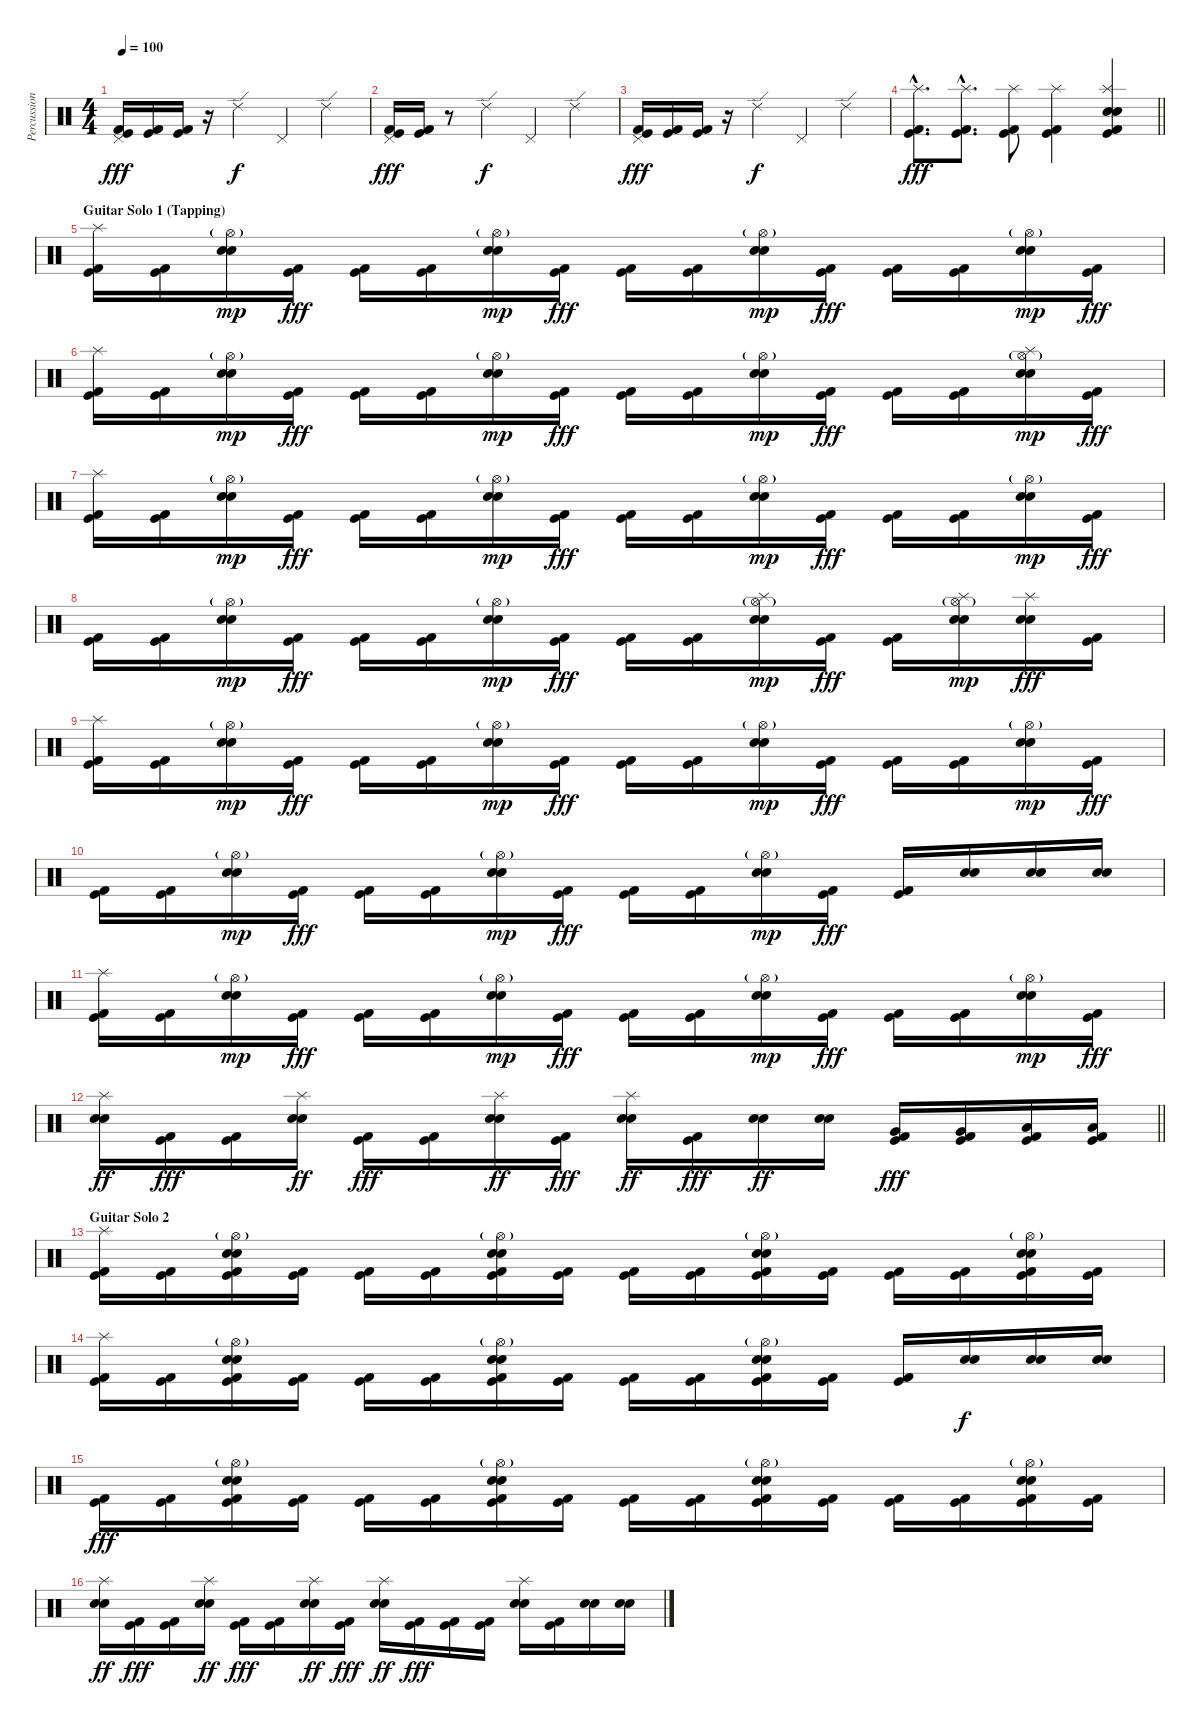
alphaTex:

\track ("Percussion" "Percussion") {instrument percussion}
\staff {score}
\articulation defaults
\ts (4 4)
\tempo 100
\clef neutral
\ks c
("Pedal Hi-Hat (hit)" "Kick (hit)" "Kick (hit) 2").16{dy fff} ("Kick (hit)" "Kick (hit) 2").16 ("Kick (hit)" "Kick (hit) 2").16 r.16 "Ride (edge) 2".4{dy f} "Pedal Hi-Hat (hit)".4 "Ride (edge) 2".4 |
("Pedal Hi-Hat (hit)" "Kick (hit)" "Kick (hit) 2").16{dy fff} ("Kick (hit)" "Kick (hit) 2").16 r.8 "Ride (edge) 2".4{dy f} "Pedal Hi-Hat (hit)".4 "Ride (edge) 2".4 |
("Pedal Hi-Hat (hit)" "Kick (hit)" "Kick (hit) 2").16{dy fff} ("Kick (hit)" "Kick (hit) 2").16 ("Kick (hit)" "Kick (hit) 2").16 r.16 "Ride (edge) 2".4{dy f} "Pedal Hi-Hat (hit)".4 "Ride (edge) 2".4 |
\barLineRight lightlight
("Splash (hit)"{hac} "Kick (hit)"{hac} "Kick (hit) 2"{hac}).8{d dy fff} ("Splash (hit)"{hac} "Kick (hit)"{hac} "Kick (hit) 2"{hac}).8{d} ("Splash (hit)" "Kick (hit)" "Kick (hit) 2").8 ("Splash (hit)" "Kick (hit)" "Kick (hit) 2").4 ("Splash (hit)" "Electric Snare (hit)" "Snare (hit) 2" "Kick (hit)" "Kick (hit) 2").4 |
\section ("" "Guitar Solo 1 (Tapping)")
("Splash (hit)" "Kick (hit)" "Kick (hit) 2").16 ("Kick (hit)" "Kick (hit) 2").16 ("Electric Snare (hit)" "Snare (hit) 2" "Hi-Hat (open)"{g}).16{dy mp} ("Kick (hit)" "Kick (hit) 2").16{dy fff} ("Kick (hit)" "Kick (hit) 2").16 ("Kick (hit)" "Kick (hit) 2").16 ("Electric Snare (hit)" "Snare (hit) 2" "Hi-Hat (open)"{g}).16{dy mp} ("Kick (hit)" "Kick (hit) 2").16{dy fff} ("Kick (hit)" "Kick (hit) 2").16 ("Kick (hit)" "Kick (hit) 2").16 ("Electric Snare (hit)" "Snare (hit) 2" "Hi-Hat (open)"{g}).16{dy mp} ("Kick (hit)" "Kick (hit) 2").16{dy fff} ("Kick (hit)" "Kick (hit) 2").16 ("Kick (hit)" "Kick (hit) 2").16 ("Electric Snare (hit)" "Snare (hit) 2" "Hi-Hat (open)"{g}).16{dy mp} ("Kick (hit)" "Kick (hit) 2").16{dy fff} |
("Splash (hit)" "Kick (hit)" "Kick (hit) 2").16 ("Kick (hit)" "Kick (hit) 2").16 ("Electric Snare (hit)" "Snare (hit) 2" "Hi-Hat (open)"{g}).16{dy mp} ("Kick (hit)" "Kick (hit) 2").16{dy fff} ("Kick (hit)" "Kick (hit) 2").16 ("Kick (hit)" "Kick (hit) 2").16 ("Electric Snare (hit)" "Snare (hit) 2" "Hi-Hat (open)"{g}).16{dy mp} ("Kick (hit)" "Kick (hit) 2").16{dy fff} ("Kick (hit)" "Kick (hit) 2").16 ("Kick (hit)" "Kick (hit) 2").16 ("Electric Snare (hit)" "Snare (hit) 2" "Hi-Hat (open)"{g}).16{dy mp} ("Kick (hit)" "Kick (hit) 2").16{dy fff} ("Kick (hit)" "Kick (hit) 2").16 ("Kick (hit)" "Kick (hit) 2").16 ("Splash (hit)" "Electric Snare (hit)" "Snare (hit) 2" "Hi-Hat (open)"{g}).16{dy mp} ("Kick (hit)" "Kick (hit) 2").16{dy fff} |
("Splash (hit)" "Kick (hit)" "Kick (hit) 2").16 ("Kick (hit)" "Kick (hit) 2").16 ("Electric Snare (hit)" "Snare (hit) 2" "Hi-Hat (open)"{g}).16{dy mp} ("Kick (hit)" "Kick (hit) 2").16{dy fff} ("Kick (hit)" "Kick (hit) 2").16 ("Kick (hit)" "Kick (hit) 2").16 ("Electric Snare (hit)" "Snare (hit) 2" "Hi-Hat (open)"{g}).16{dy mp} ("Kick (hit)" "Kick (hit) 2").16{dy fff} ("Kick (hit)" "Kick (hit) 2").16 ("Kick (hit)" "Kick (hit) 2").16 ("Electric Snare (hit)" "Snare (hit) 2" "Hi-Hat (open)"{g}).16{dy mp} ("Kick (hit)" "Kick (hit) 2").16{dy fff} ("Kick (hit)" "Kick (hit) 2").16 ("Kick (hit)" "Kick (hit) 2").16 ("Electric Snare (hit)" "Snare (hit) 2" "Hi-Hat (open)"{g}).16{dy mp} ("Kick (hit)" "Kick (hit) 2").16{dy fff} |
("Kick (hit)" "Kick (hit) 2").16 ("Kick (hit)" "Kick (hit) 2").16 ("Electric Snare (hit)" "Snare (hit) 2" "Hi-Hat (open)"{g}).16{dy mp} ("Kick (hit)" "Kick (hit) 2").16{dy fff} ("Kick (hit)" "Kick (hit) 2").16 ("Kick (hit)" "Kick (hit) 2").16 ("Electric Snare (hit)" "Snare (hit) 2" "Hi-Hat (open)"{g}).16{dy mp} ("Kick (hit)" "Kick (hit) 2").16{dy fff} ("Kick (hit)" "Kick (hit) 2").16 ("Kick (hit)" "Kick (hit) 2").16 ("Splash (hit)" "Electric Snare (hit)" "Snare (hit) 2" "Hi-Hat (open)"{g}).16{dy mp} ("Kick (hit)" "Kick (hit) 2").16{dy fff} ("Kick (hit)" "Kick (hit) 2").16 ("Splash (hit)" "Electric Snare (hit)" "Snare (hit) 2" "Hi-Hat (open)"{g}).16{dy mp} ("Splash (hit)" "Electric Snare (hit)" "Snare (hit) 2").16{dy fff} ("Kick (hit)" "Kick (hit) 2").16 |
("Splash (hit)" "Kick (hit)" "Kick (hit) 2").16 ("Kick (hit)" "Kick (hit) 2").16 ("Electric Snare (hit)" "Snare (hit) 2" "Hi-Hat (open)"{g}).16{dy mp} ("Kick (hit)" "Kick (hit) 2").16{dy fff} ("Kick (hit)" "Kick (hit) 2").16 ("Kick (hit)" "Kick (hit) 2").16 ("Electric Snare (hit)" "Snare (hit) 2" "Hi-Hat (open)"{g}).16{dy mp} ("Kick (hit)" "Kick (hit) 2").16{dy fff} ("Kick (hit)" "Kick (hit) 2").16 ("Kick (hit)" "Kick (hit) 2").16 ("Electric Snare (hit)" "Snare (hit) 2" "Hi-Hat (open)"{g}).16{dy mp} ("Kick (hit)" "Kick (hit) 2").16{dy fff} ("Kick (hit)" "Kick (hit) 2").16 ("Kick (hit)" "Kick (hit) 2").16 ("Electric Snare (hit)" "Snare (hit) 2" "Hi-Hat (open)"{g}).16{dy mp} ("Kick (hit)" "Kick (hit) 2").16{dy fff} |
("Kick (hit)" "Kick (hit) 2").16 ("Kick (hit)" "Kick (hit) 2").16 ("Electric Snare (hit)" "Snare (hit) 2" "Hi-Hat (open)"{g}).16{dy mp} ("Kick (hit)" "Kick (hit) 2").16{dy fff} ("Kick (hit)" "Kick (hit) 2").16 ("Kick (hit)" "Kick (hit) 2").16 ("Electric Snare (hit)" "Snare (hit) 2" "Hi-Hat (open)"{g}).16{dy mp} ("Kick (hit)" "Kick (hit) 2").16{dy fff} ("Kick (hit)" "Kick (hit) 2").16 ("Kick (hit)" "Kick (hit) 2").16 ("Electric Snare (hit)" "Snare (hit) 2" "Hi-Hat (open)"{g}).16{dy mp} ("Kick (hit)" "Kick (hit) 2").16{dy fff} ("Kick (hit)" "Kick (hit) 2").16 ("Electric Snare (hit)" "Snare (hit) 2").16 ("Electric Snare (hit)" "Snare (hit) 2").16 ("Electric Snare (hit)" "Snare (hit) 2").16 |
("Splash (hit)" "Kick (hit)" "Kick (hit) 2").16 ("Kick (hit)" "Kick (hit) 2").16 ("Electric Snare (hit)" "Snare (hit) 2" "Hi-Hat (open)"{g}).16{dy mp} ("Kick (hit)" "Kick (hit) 2").16{dy fff} ("Kick (hit)" "Kick (hit) 2").16 ("Kick (hit)" "Kick (hit) 2").16 ("Electric Snare (hit)" "Snare (hit) 2" "Hi-Hat (open)"{g}).16{dy mp} ("Kick (hit)" "Kick (hit) 2").16{dy fff} ("Kick (hit)" "Kick (hit) 2").16 ("Kick (hit)" "Kick (hit) 2").16 ("Electric Snare (hit)" "Snare (hit) 2" "Hi-Hat (open)"{g}).16{dy mp} ("Kick (hit)" "Kick (hit) 2").16{dy fff} ("Kick (hit)" "Kick (hit) 2").16 ("Kick (hit)" "Kick (hit) 2").16 ("Electric Snare (hit)" "Snare (hit) 2" "Hi-Hat (open)"{g}).16{dy mp} ("Kick (hit)" "Kick (hit) 2").16{dy fff} |
\barLineRight lightlight
("Splash (hit)" "Electric Snare (hit)" "Snare (hit) 2").16{dy ff} ("Kick (hit)" "Kick (hit) 2").16{dy fff} ("Kick (hit)" "Kick (hit) 2").16 ("Splash (hit)" "Electric Snare (hit)" "Snare (hit) 2").16{dy ff} ("Kick (hit)" "Kick (hit) 2").16{dy fff} ("Kick (hit)" "Kick (hit) 2").16 ("Splash (hit)" "Electric Snare (hit)" "Snare (hit) 2").16{dy ff} ("Kick (hit)" "Kick (hit) 2").16{dy fff} ("Splash (hit)" "Electric Snare (hit)" "Snare (hit) 2").16{dy ff} ("Kick (hit)" "Kick (hit) 2").16{dy fff} ("Electric Snare (hit)" "Snare (hit) 2").16{dy ff} ("Electric Snare (hit)" "Snare (hit) 2").16 ("Very Low Tom (hit)" "Kick (hit)" "Kick (hit) 2").16{dy fff} ("Very Low Tom (hit)" "Kick (hit)" "Kick (hit) 2").16 ("Low Floor Tom (hit)" "Kick (hit)" "Kick (hit) 2").16 ("Low Floor Tom (hit)" "Kick (hit)" "Kick (hit) 2").16 |
\section ("" "Guitar Solo 2")
("Splash (hit)" "Kick (hit)" "Kick (hit) 2").16 ("Kick (hit)" "Kick (hit) 2").16 ("Electric Snare (hit)" "Snare (hit) 2" "Hi-Hat (open)"{g} "Kick (hit)" "Kick (hit) 2").16 ("Kick (hit)" "Kick (hit) 2").16 ("Kick (hit)" "Kick (hit) 2").16 ("Kick (hit)" "Kick (hit) 2").16 ("Electric Snare (hit)" "Snare (hit) 2" "Hi-Hat (open)"{g} "Kick (hit)" "Kick (hit) 2").16 ("Kick (hit)" "Kick (hit) 2").16 ("Kick (hit)" "Kick (hit) 2").16 ("Kick (hit)" "Kick (hit) 2").16 ("Electric Snare (hit)" "Snare (hit) 2" "Hi-Hat (open)"{g} "Kick (hit)" "Kick (hit) 2").16 ("Kick (hit)" "Kick (hit) 2").16 ("Kick (hit)" "Kick (hit) 2").16 ("Kick (hit)" "Kick (hit) 2").16 ("Electric Snare (hit)" "Snare (hit) 2" "Hi-Hat (open)"{g} "Kick (hit)" "Kick (hit) 2").16 ("Kick (hit)" "Kick (hit) 2").16 |
("Splash (hit)" "Kick (hit)" "Kick (hit) 2").16 ("Kick (hit)" "Kick (hit) 2").16 ("Electric Snare (hit)" "Snare (hit) 2" "Hi-Hat (open)"{g} "Kick (hit)" "Kick (hit) 2").16 ("Kick (hit)" "Kick (hit) 2").16 ("Kick (hit)" "Kick (hit) 2").16 ("Kick (hit)" "Kick (hit) 2").16 ("Electric Snare (hit)" "Snare (hit) 2" "Hi-Hat (open)"{g} "Kick (hit)" "Kick (hit) 2").16 ("Kick (hit)" "Kick (hit) 2").16 ("Kick (hit)" "Kick (hit) 2").16 ("Kick (hit)" "Kick (hit) 2").16 ("Electric Snare (hit)" "Snare (hit) 2" "Hi-Hat (open)"{g} "Kick (hit)" "Kick (hit) 2").16 ("Kick (hit)" "Kick (hit) 2").16 ("Kick (hit)" "Kick (hit) 2").16 ("Electric Snare (hit)" "Snare (hit) 2").16{dy f} ("Electric Snare (hit)" "Snare (hit) 2").16 ("Electric Snare (hit)" "Snare (hit) 2").16 |
("Kick (hit)" "Kick (hit) 2").16{dy fff} ("Kick (hit)" "Kick (hit) 2").16 ("Electric Snare (hit)" "Snare (hit) 2" "Hi-Hat (open)"{g} "Kick (hit)" "Kick (hit) 2").16 ("Kick (hit)" "Kick (hit) 2").16 ("Kick (hit)" "Kick (hit) 2").16 ("Kick (hit)" "Kick (hit) 2").16 ("Electric Snare (hit)" "Snare (hit) 2" "Hi-Hat (open)"{g} "Kick (hit)" "Kick (hit) 2").16 ("Kick (hit)" "Kick (hit) 2").16 ("Kick (hit)" "Kick (hit) 2").16 ("Kick (hit)" "Kick (hit) 2").16 ("Electric Snare (hit)" "Snare (hit) 2" "Hi-Hat (open)"{g} "Kick (hit)" "Kick (hit) 2").16 ("Kick (hit)" "Kick (hit) 2").16 ("Kick (hit)" "Kick (hit) 2").16 ("Kick (hit)" "Kick (hit) 2").16 ("Electric Snare (hit)" "Snare (hit) 2" "Hi-Hat (open)"{g} "Kick (hit)" "Kick (hit) 2").16 ("Kick (hit)" "Kick (hit) 2").16 |
("Splash (hit)" "Electric Snare (hit)" "Snare (hit) 2").16{dy ff} ("Kick (hit)" "Kick (hit) 2").16{dy fff} ("Kick (hit)" "Kick (hit) 2").16 ("Splash (hit)" "Electric Snare (hit)" "Snare (hit) 2").16{dy ff} ("Kick (hit)" "Kick (hit) 2").16{dy fff} ("Kick (hit)" "Kick (hit) 2").16 ("Splash (hit)" "Electric Snare (hit)" "Snare (hit) 2").16{dy ff} ("Kick (hit)" "Kick (hit) 2").16{dy fff} ("Splash (hit)" "Electric Snare (hit)" "Snare (hit) 2").16{dy ff} ("Kick (hit)" "Kick (hit) 2").16{dy fff} ("Kick (hit)" "Kick (hit) 2").16 ("Kick (hit)" "Kick (hit) 2").16 ("Splash (hit)" "Electric Snare (hit)" "Snare (hit) 2").16 ("Kick (hit)" "Kick (hit) 2").16 ("Electric Snare (hit)" "Snare (hit) 2").16 ("Electric Snare (hit)" "Snare (hit) 2").16
